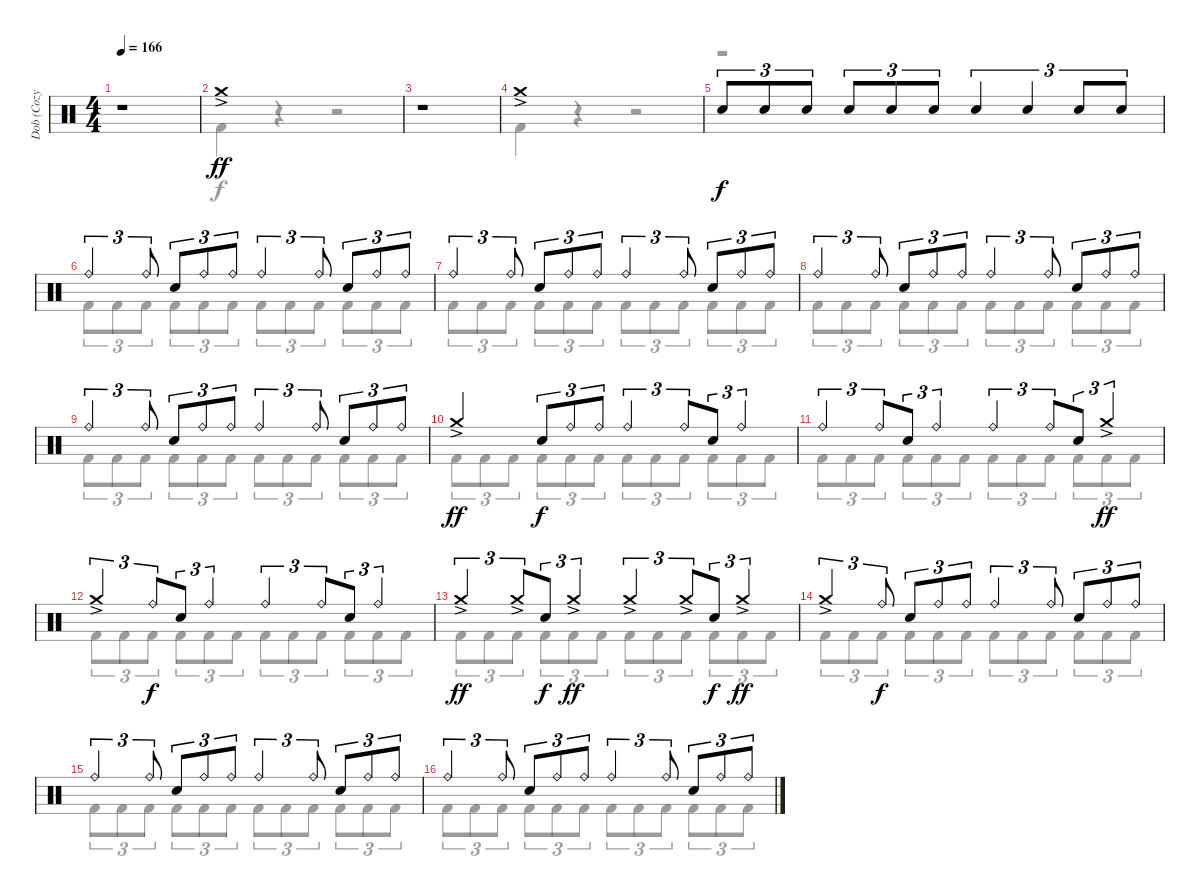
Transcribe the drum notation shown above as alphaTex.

\track ("Dob (Cozy Powell)" "Dob (Cozy ") {instrument percussion}
\staff {score}
\articulation defaults
\voice
\ts (4 4)
\tempo 166
\clef neutral
\ks c
r.1{dy ff} |
"Crash medium (hit)"{ac}.1 |
r.1 |
"Crash medium (hit)"{ac}.1 |
"Electric Snare (hit)".8{tu (3 2) dy f} "Electric Snare (hit)".8{tu (3 2)} "Electric Snare (hit)".8{tu (3 2)} "Electric Snare (hit)".8{tu (3 2)} "Electric Snare (hit)".8{tu (3 2)} "Electric Snare (hit)".8{tu (3 2)} "Electric Snare (hit)".4{tu (3 2)} "Electric Snare (hit)".4{tu (3 2)} "Electric Snare (hit)".8{tu (3 2)} "Electric Snare (hit)".8{tu (3 2)} |
"Ride (bell)".4{tu (3 2)} "Ride (bell)".8{tu (3 2)} "Electric Snare (hit)".8{tu (3 2)} "Ride (bell)".8{tu (3 2)} "Ride (bell)".8{tu (3 2)} "Ride (bell)".4{tu (3 2)} "Ride (bell)".8{tu (3 2)} "Electric Snare (hit)".8{tu (3 2)} "Ride (bell)".8{tu (3 2)} "Ride (bell)".8{tu (3 2)} |
"Ride (bell)".4{tu (3 2)} "Ride (bell)".8{tu (3 2)} "Electric Snare (hit)".8{tu (3 2)} "Ride (bell)".8{tu (3 2)} "Ride (bell)".8{tu (3 2)} "Ride (bell)".4{tu (3 2)} "Ride (bell)".8{tu (3 2)} "Electric Snare (hit)".8{tu (3 2)} "Ride (bell)".8{tu (3 2)} "Ride (bell)".8{tu (3 2)} |
"Ride (bell)".4{tu (3 2)} "Ride (bell)".8{tu (3 2)} "Electric Snare (hit)".8{tu (3 2)} "Ride (bell)".8{tu (3 2)} "Ride (bell)".8{tu (3 2)} "Ride (bell)".4{tu (3 2)} "Ride (bell)".8{tu (3 2)} "Electric Snare (hit)".8{tu (3 2)} "Ride (bell)".8{tu (3 2)} "Ride (bell)".8{tu (3 2)} |
"Ride (bell)".4{tu (3 2)} "Ride (bell)".8{tu (3 2)} "Electric Snare (hit)".8{tu (3 2)} "Ride (bell)".8{tu (3 2)} "Ride (bell)".8{tu (3 2)} "Ride (bell)".4{tu (3 2)} "Ride (bell)".8{tu (3 2)} "Electric Snare (hit)".8{tu (3 2)} "Ride (bell)".8{tu (3 2)} "Ride (bell)".8{tu (3 2)} |
"Crash medium (hit)"{ac}.4{dy ff} "Electric Snare (hit)".8{tu (3 2) dy f} "Ride (bell)".8{tu (3 2)} "Ride (bell)".8{tu (3 2)} "Ride (bell)".4{tu (3 2)} "Ride (bell)".8{tu (3 2) beam merge} "Electric Snare (hit)".8{tu (3 2)} "Ride (bell)".4{tu (3 2)} |
"Ride (bell)".4{tu (3 2)} "Ride (bell)".8{tu (3 2) beam merge} "Electric Snare (hit)".8{tu (3 2)} "Ride (bell)".4{tu (3 2)} "Ride (bell)".4{tu (3 2)} "Ride (bell)".8{tu (3 2) beam merge} "Electric Snare (hit)".8{tu (3 2)} "Crash medium (hit)"{ac}.4{tu (3 2) dy ff} |
"Crash medium (hit)"{ac}.4{tu (3 2)} "Ride (bell)".8{tu (3 2) dy f beam merge} "Electric Snare (hit)".8{tu (3 2)} "Ride (bell)".4{tu (3 2)} "Ride (bell)".4{tu (3 2)} "Ride (bell)".8{tu (3 2) beam merge} "Electric Snare (hit)".8{tu (3 2)} "Ride (bell)".4{tu (3 2)} |
"Crash medium (hit)"{ac}.4{tu (3 2) dy ff} "Crash medium (hit)"{ac}.8{tu (3 2) beam merge} "Electric Snare (hit)".8{tu (3 2) dy f} "Crash medium (hit)"{ac}.4{tu (3 2) dy ff} "Crash medium (hit)"{ac}.4{tu (3 2)} "Crash medium (hit)"{ac}.8{tu (3 2) beam merge} "Electric Snare (hit)".8{tu (3 2) dy f} "Crash medium (hit)"{ac}.4{tu (3 2) dy ff} |
"Crash medium (hit)"{ac}.4{tu (3 2)} "Ride (bell)".8{tu (3 2) dy f} "Electric Snare (hit)".8{tu (3 2)} "Ride (bell)".8{tu (3 2)} "Ride (bell)".8{tu (3 2)} "Ride (bell)".4{tu (3 2)} "Ride (bell)".8{tu (3 2)} "Electric Snare (hit)".8{tu (3 2)} "Ride (bell)".8{tu (3 2)} "Ride (bell)".8{tu (3 2)} |
"Ride (bell)".4{tu (3 2)} "Ride (bell)".8{tu (3 2)} "Electric Snare (hit)".8{tu (3 2)} "Ride (bell)".8{tu (3 2)} "Ride (bell)".8{tu (3 2)} "Ride (bell)".4{tu (3 2)} "Ride (bell)".8{tu (3 2)} "Electric Snare (hit)".8{tu (3 2)} "Ride (bell)".8{tu (3 2)} "Ride (bell)".8{tu (3 2)} |
"Ride (bell)".4{tu (3 2)} "Ride (bell)".8{tu (3 2)} "Electric Snare (hit)".8{tu (3 2)} "Ride (bell)".8{tu (3 2)} "Ride (bell)".8{tu (3 2)} "Ride (bell)".4{tu (3 2)} "Ride (bell)".8{tu (3 2)} "Electric Snare (hit)".8{tu (3 2)} "Ride (bell)".8{tu (3 2)} "Ride (bell)".8{tu (3 2)}
\voice
\clef neutral
\ottava regular
\simile none
\ks c
r.1{dy f} |
"Kick (hit) 2".4 r.4 r.2 |
r.1 |
"Kick (hit) 2".4 r.4 r.2 |
r.1 |
"Kick (hit) 2".8{tu (3 2)} "Kick (hit) 2".8{tu (3 2)} "Kick (hit) 2".8{tu (3 2)} "Kick (hit) 2".8{tu (3 2)} "Kick (hit) 2".8{tu (3 2)} "Kick (hit) 2".8{tu (3 2)} "Kick (hit) 2".8{tu (3 2)} "Kick (hit) 2".8{tu (3 2)} "Kick (hit) 2".8{tu (3 2)} "Kick (hit) 2".8{tu (3 2)} "Kick (hit) 2".8{tu (3 2)} "Kick (hit) 2".8{tu (3 2)} |
"Kick (hit) 2".8{tu (3 2)} "Kick (hit) 2".8{tu (3 2)} "Kick (hit) 2".8{tu (3 2)} "Kick (hit) 2".8{tu (3 2)} "Kick (hit) 2".8{tu (3 2)} "Kick (hit) 2".8{tu (3 2)} "Kick (hit) 2".8{tu (3 2)} "Kick (hit) 2".8{tu (3 2)} "Kick (hit) 2".8{tu (3 2)} "Kick (hit) 2".8{tu (3 2)} "Kick (hit) 2".8{tu (3 2)} "Kick (hit) 2".8{tu (3 2)} |
"Kick (hit) 2".8{tu (3 2)} "Kick (hit) 2".8{tu (3 2)} "Kick (hit) 2".8{tu (3 2)} "Kick (hit) 2".8{tu (3 2)} "Kick (hit) 2".8{tu (3 2)} "Kick (hit) 2".8{tu (3 2)} "Kick (hit) 2".8{tu (3 2)} "Kick (hit) 2".8{tu (3 2)} "Kick (hit) 2".8{tu (3 2)} "Kick (hit) 2".8{tu (3 2)} "Kick (hit) 2".8{tu (3 2)} "Kick (hit) 2".8{tu (3 2)} |
"Kick (hit) 2".8{tu (3 2)} "Kick (hit) 2".8{tu (3 2)} "Kick (hit) 2".8{tu (3 2)} "Kick (hit) 2".8{tu (3 2)} "Kick (hit) 2".8{tu (3 2)} "Kick (hit) 2".8{tu (3 2)} "Kick (hit) 2".8{tu (3 2)} "Kick (hit) 2".8{tu (3 2)} "Kick (hit) 2".8{tu (3 2)} "Kick (hit) 2".8{tu (3 2)} "Kick (hit) 2".8{tu (3 2)} "Kick (hit) 2".8{tu (3 2)} |
"Kick (hit) 2".8{tu (3 2)} "Kick (hit) 2".8{tu (3 2)} "Kick (hit) 2".8{tu (3 2)} "Kick (hit) 2".8{tu (3 2)} "Kick (hit) 2".8{tu (3 2)} "Kick (hit) 2".8{tu (3 2)} "Kick (hit) 2".8{tu (3 2)} "Kick (hit) 2".8{tu (3 2)} "Kick (hit) 2".8{tu (3 2)} "Kick (hit) 2".8{tu (3 2)} "Kick (hit) 2".8{tu (3 2)} "Kick (hit) 2".8{tu (3 2)} |
"Kick (hit) 2".8{tu (3 2)} "Kick (hit) 2".8{tu (3 2)} "Kick (hit) 2".8{tu (3 2)} "Kick (hit) 2".8{tu (3 2)} "Kick (hit) 2".8{tu (3 2)} "Kick (hit) 2".8{tu (3 2)} "Kick (hit) 2".8{tu (3 2)} "Kick (hit) 2".8{tu (3 2)} "Kick (hit) 2".8{tu (3 2)} "Kick (hit) 2".8{tu (3 2)} "Kick (hit) 2".8{tu (3 2)} "Kick (hit) 2".8{tu (3 2)} |
"Kick (hit) 2".8{tu (3 2)} "Kick (hit) 2".8{tu (3 2)} "Kick (hit) 2".8{tu (3 2)} "Kick (hit) 2".8{tu (3 2)} "Kick (hit) 2".8{tu (3 2)} "Kick (hit) 2".8{tu (3 2)} "Kick (hit) 2".8{tu (3 2)} "Kick (hit) 2".8{tu (3 2)} "Kick (hit) 2".8{tu (3 2)} "Kick (hit) 2".8{tu (3 2)} "Kick (hit) 2".8{tu (3 2)} "Kick (hit) 2".8{tu (3 2)} |
"Kick (hit) 2".8{tu (3 2)} "Kick (hit) 2".8{tu (3 2)} "Kick (hit) 2".8{tu (3 2)} "Kick (hit) 2".8{tu (3 2)} "Kick (hit) 2".8{tu (3 2)} "Kick (hit) 2".8{tu (3 2)} "Kick (hit) 2".8{tu (3 2)} "Kick (hit) 2".8{tu (3 2)} "Kick (hit) 2".8{tu (3 2)} "Kick (hit) 2".8{tu (3 2)} "Kick (hit) 2".8{tu (3 2)} "Kick (hit) 2".8{tu (3 2)} |
"Kick (hit) 2".8{tu (3 2)} "Kick (hit) 2".8{tu (3 2)} "Kick (hit) 2".8{tu (3 2)} "Kick (hit) 2".8{tu (3 2)} "Kick (hit) 2".8{tu (3 2)} "Kick (hit) 2".8{tu (3 2)} "Kick (hit) 2".8{tu (3 2)} "Kick (hit) 2".8{tu (3 2)} "Kick (hit) 2".8{tu (3 2)} "Kick (hit) 2".8{tu (3 2)} "Kick (hit) 2".8{tu (3 2)} "Kick (hit) 2".8{tu (3 2)} |
"Kick (hit) 2".8{tu (3 2)} "Kick (hit) 2".8{tu (3 2)} "Kick (hit) 2".8{tu (3 2)} "Kick (hit) 2".8{tu (3 2)} "Kick (hit) 2".8{tu (3 2)} "Kick (hit) 2".8{tu (3 2)} "Kick (hit) 2".8{tu (3 2)} "Kick (hit) 2".8{tu (3 2)} "Kick (hit) 2".8{tu (3 2)} "Kick (hit) 2".8{tu (3 2)} "Kick (hit) 2".8{tu (3 2)} "Kick (hit) 2".8{tu (3 2)} |
"Kick (hit) 2".8{tu (3 2)} "Kick (hit) 2".8{tu (3 2)} "Kick (hit) 2".8{tu (3 2)} "Kick (hit) 2".8{tu (3 2)} "Kick (hit) 2".8{tu (3 2)} "Kick (hit) 2".8{tu (3 2)} "Kick (hit) 2".8{tu (3 2)} "Kick (hit) 2".8{tu (3 2)} "Kick (hit) 2".8{tu (3 2)} "Kick (hit) 2".8{tu (3 2)} "Kick (hit) 2".8{tu (3 2)} "Kick (hit) 2".8{tu (3 2)}
